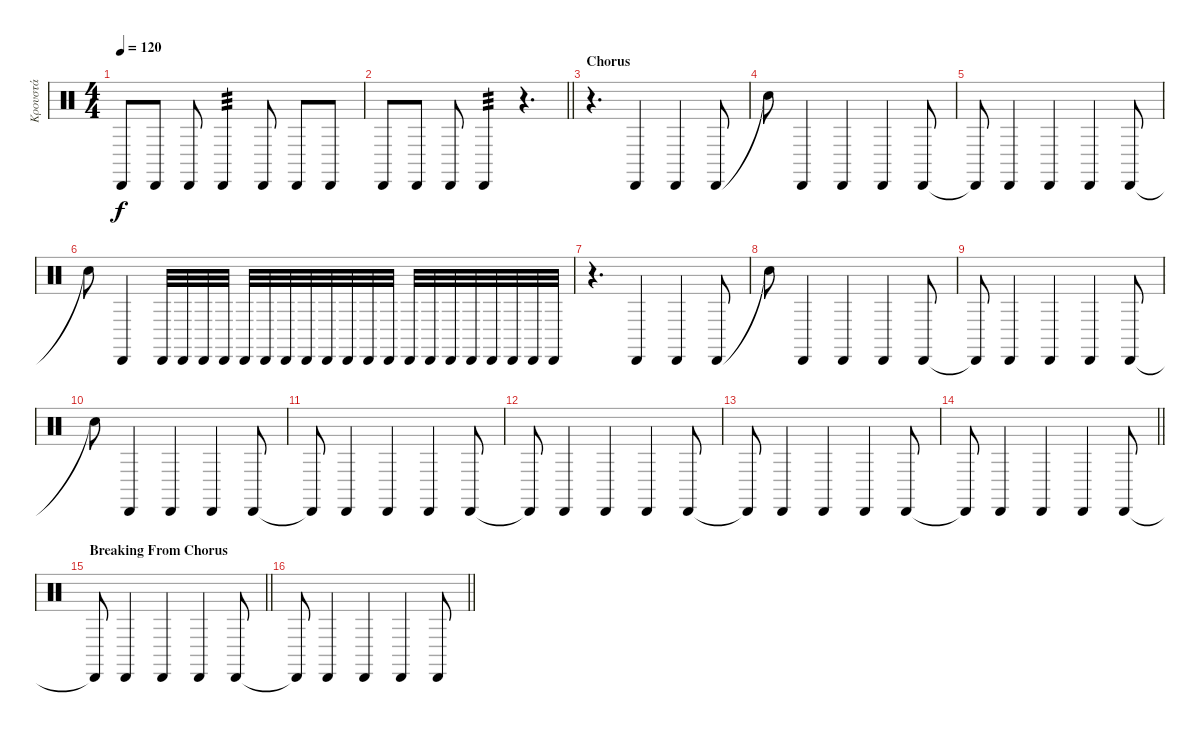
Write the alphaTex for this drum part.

\track ("Κρουστά" "Κρουστά") {instrument percussion}
\staff {score}
\articulation defaults
\ts (4 4)
\tempo 120
\clef neutral
\ks c "Cabasa (hit)".8{dy f} "Cabasa (hit)".8 "Cabasa (hit)".8 "Cabasa (hit)".4{tp 3} "Cabasa (hit)".8 "Cabasa (hit)".8 "Cabasa (hit)".8
|
\barLineRight lightlight "Cabasa (hit)".8 "Cabasa (hit)".8 "Cabasa (hit)".8 "Cabasa (hit)".4{tp 3}
r.4{d} |
\section ("" "Chorus")
r.4{d} "Cabasa (hit)".4 "Cabasa (hit)".4 "Cabasa (hit)".8 |
"Snare (hit)"{t}.8 "Cabasa (hit)".4 "Cabasa (hit)".4 "Cabasa (hit)".4 "Cabasa (hit)".8 |
"Cabasa (hit)"{t}.8 "Cabasa (hit)".4 "Cabasa (hit)".4 "Cabasa (hit)".4 "Cabasa (hit)".8 |
"Snare (hit)"{t}.8 "Cabasa (hit)".4 "Cabasa (hit)".32 "Cabasa (hit)".32 "Cabasa (hit)".32 "Cabasa (hit)".32 "Cabasa (hit)".32 "Cabasa (hit)".32 "Cabasa (hit)".32 "Cabasa (hit)".32 "Cabasa (hit)".32 "Cabasa (hit)".32 "Cabasa (hit)".32 "Cabasa (hit)".32 "Cabasa (hit)".32 "Cabasa (hit)".32 "Cabasa (hit)".32 "Cabasa (hit)".32 "Cabasa (hit)".32 "Cabasa (hit)".32 "Cabasa (hit)".32 "Cabasa (hit)".32 |
r.4{d} "Cabasa (hit)".4 "Cabasa (hit)".4 "Cabasa (hit)".8 |
"Snare (hit)"{t}.8 "Cabasa (hit)".4 "Cabasa (hit)".4 "Cabasa (hit)".4 "Cabasa (hit)".8 |
"Cabasa (hit)"{t}.8 "Cabasa (hit)".4 "Cabasa (hit)".4 "Cabasa (hit)".4 "Cabasa (hit)".8 |
"Snare (hit)"{t}.8 "Cabasa (hit)".4 "Cabasa (hit)".4 "Cabasa (hit)".4 "Cabasa (hit)".8 |
"Cabasa (hit)"{t}.8 "Cabasa (hit)".4 "Cabasa (hit)".4 "Cabasa (hit)".4 "Cabasa (hit)".8 |
"Cabasa (hit)"{t}.8 "Cabasa (hit)".4 "Cabasa (hit)".4 "Cabasa (hit)".4 "Cabasa (hit)".8 |
"Cabasa (hit)"{t}.8 "Cabasa (hit)".4 "Cabasa (hit)".4 "Cabasa (hit)".4 "Cabasa (hit)".8 |
\barLineRight lightlight "Cabasa (hit)"{t}.8 "Cabasa (hit)".4 "Cabasa (hit)".4 "Cabasa (hit)".4 "Cabasa (hit)".8
|
\section ("" "Breaking From Chorus")
\barLineRight lightlight "Cabasa (hit)"{t}.8 "Cabasa (hit)".4 "Cabasa (hit)".4 "Cabasa (hit)".4 "Cabasa (hit)".8
|
\barLineRight lightlight "Cabasa (hit)"{t}.8 "Cabasa (hit)".4 "Cabasa (hit)".4 "Cabasa (hit)".4 "Cabasa (hit)".8
